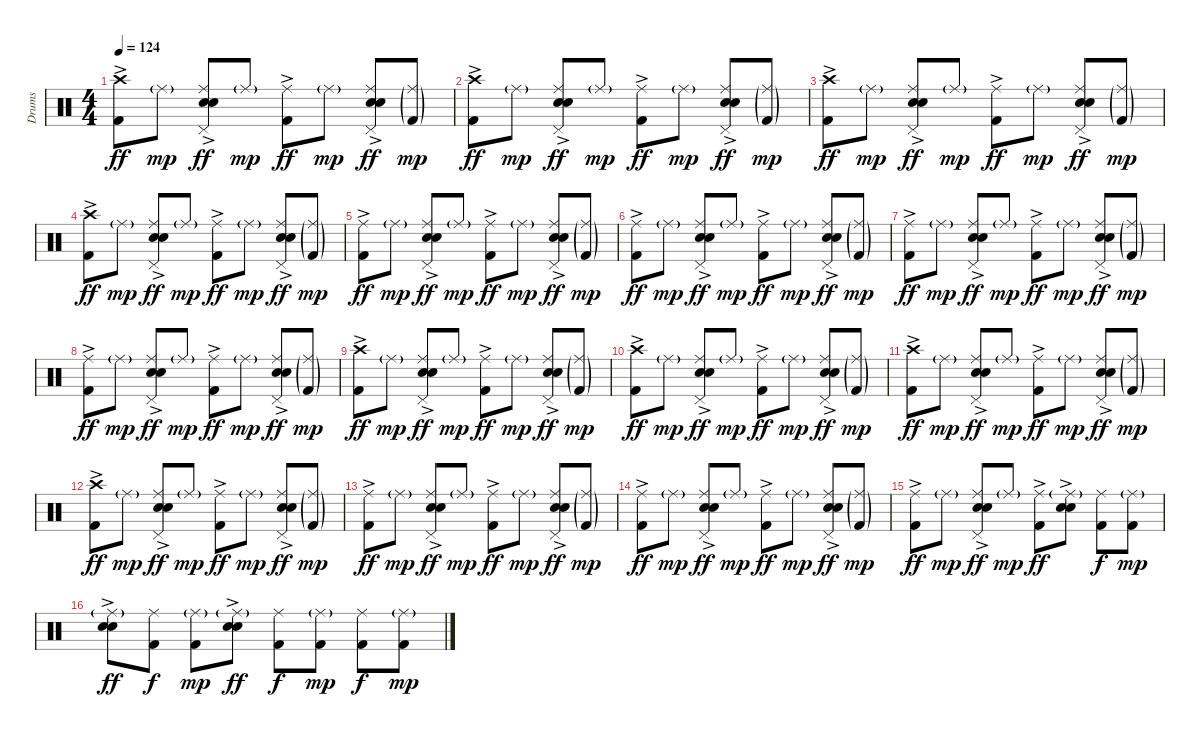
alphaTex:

\track ("Drums" "Drums") {instrument percussion}
\staff {score}
\articulation defaults
\ts (4 4)
\tempo 124
\clef neutral
\ks c
("Crash high (hit)" "Kick (hit) 2"{ac}).8{dy ff} "Ride (middle)"{g}.8{dy mp} ("Ride (middle)" "Electric Snare (hit)"{ac} "Snare (hit) 2" "Pedal Hi-Hat (hit)").8{dy ff} "Ride (middle)"{g}.8{dy mp} ("Ride (middle)" "Kick (hit) 2"{ac}).8{dy ff} "Ride (middle)"{g}.8{dy mp} ("Ride (middle)" "Electric Snare (hit)"{ac} "Snare (hit) 2" "Pedal Hi-Hat (hit)").8{dy ff} ("Ride (middle)"{g} "Kick (hit) 2"{g}).8{dy mp} |
("Crash high (hit)" "Kick (hit) 2"{ac}).8{dy ff} "Ride (middle)"{g}.8{dy mp} ("Ride (middle)" "Electric Snare (hit)"{ac} "Snare (hit) 2" "Pedal Hi-Hat (hit)").8{dy ff} "Ride (middle)"{g}.8{dy mp} ("Ride (middle)" "Kick (hit) 2"{ac}).8{dy ff} "Ride (middle)"{g}.8{dy mp} ("Ride (middle)" "Electric Snare (hit)"{ac} "Snare (hit) 2" "Pedal Hi-Hat (hit)").8{dy ff} ("Ride (middle)"{g} "Kick (hit) 2"{g}).8{dy mp} |
("Crash high (hit)" "Kick (hit) 2"{ac}).8{dy ff} "Ride (middle)"{g}.8{dy mp} ("Ride (middle)" "Electric Snare (hit)"{ac} "Snare (hit) 2" "Pedal Hi-Hat (hit)").8{dy ff} "Ride (middle)"{g}.8{dy mp} ("Ride (middle)" "Kick (hit) 2"{ac}).8{dy ff} "Ride (middle)"{g}.8{dy mp} ("Ride (middle)" "Electric Snare (hit)"{ac} "Snare (hit) 2" "Pedal Hi-Hat (hit)").8{dy ff} ("Ride (middle)"{g} "Kick (hit) 2"{g}).8{dy mp} |
("Crash high (hit)" "Kick (hit) 2"{ac}).8{dy ff} "Ride (middle)"{g}.8{dy mp} ("Ride (middle)" "Electric Snare (hit)"{ac} "Snare (hit) 2" "Pedal Hi-Hat (hit)").8{dy ff} "Ride (middle)"{g}.8{dy mp} ("Ride (middle)" "Kick (hit) 2"{ac}).8{dy ff} "Ride (middle)"{g}.8{dy mp} ("Ride (middle)" "Electric Snare (hit)"{ac} "Snare (hit) 2" "Pedal Hi-Hat (hit)").8{dy ff} ("Ride (middle)"{g} "Kick (hit) 2"{g}).8{dy mp} |
("Ride (middle)" "Kick (hit) 2"{ac}).8{dy ff} "Ride (middle)"{g}.8{dy mp} ("Ride (middle)" "Electric Snare (hit)"{ac} "Snare (hit) 2" "Pedal Hi-Hat (hit)").8{dy ff} "Ride (middle)"{g}.8{dy mp} ("Ride (middle)" "Kick (hit) 2"{ac}).8{dy ff} "Ride (middle)"{g}.8{dy mp} ("Ride (middle)" "Electric Snare (hit)"{ac} "Snare (hit) 2" "Pedal Hi-Hat (hit)").8{dy ff} ("Ride (middle)"{g} "Kick (hit) 2"{g}).8{dy mp} |
("Ride (middle)" "Kick (hit) 2"{ac}).8{dy ff} "Ride (middle)"{g}.8{dy mp} ("Ride (middle)" "Electric Snare (hit)"{ac} "Snare (hit) 2" "Pedal Hi-Hat (hit)").8{dy ff} "Ride (middle)"{g}.8{dy mp} ("Ride (middle)" "Kick (hit) 2"{ac}).8{dy ff} "Ride (middle)"{g}.8{dy mp} ("Ride (middle)" "Electric Snare (hit)"{ac} "Snare (hit) 2" "Pedal Hi-Hat (hit)").8{dy ff} ("Ride (middle)"{g} "Kick (hit) 2"{g}).8{dy mp} |
("Ride (middle)" "Kick (hit) 2"{ac}).8{dy ff} "Ride (middle)"{g}.8{dy mp} ("Ride (middle)" "Electric Snare (hit)"{ac} "Snare (hit) 2" "Pedal Hi-Hat (hit)").8{dy ff} "Ride (middle)"{g}.8{dy mp} ("Ride (middle)" "Kick (hit) 2"{ac}).8{dy ff} "Ride (middle)"{g}.8{dy mp} ("Ride (middle)" "Electric Snare (hit)"{ac} "Snare (hit) 2" "Pedal Hi-Hat (hit)").8{dy ff} ("Ride (middle)"{g} "Kick (hit) 2"{g}).8{dy mp} |
("Ride (middle)" "Kick (hit) 2"{ac}).8{dy ff} "Ride (middle)"{g}.8{dy mp} ("Ride (middle)" "Electric Snare (hit)"{ac} "Snare (hit) 2" "Pedal Hi-Hat (hit)").8{dy ff} "Ride (middle)"{g}.8{dy mp} ("Ride (middle)" "Kick (hit) 2"{ac}).8{dy ff} "Ride (middle)"{g}.8{dy mp} ("Ride (middle)" "Electric Snare (hit)"{ac} "Snare (hit) 2" "Pedal Hi-Hat (hit)").8{dy ff} ("Ride (middle)"{g} "Kick (hit) 2"{g}).8{dy mp} |
("Crash high (hit)" "Kick (hit) 2"{ac}).8{dy ff} "Ride (middle)"{g}.8{dy mp} ("Ride (middle)" "Electric Snare (hit)"{ac} "Snare (hit) 2" "Pedal Hi-Hat (hit)").8{dy ff} "Ride (middle)"{g}.8{dy mp} ("Ride (middle)" "Kick (hit) 2"{ac}).8{dy ff} "Ride (middle)"{g}.8{dy mp} ("Ride (middle)" "Electric Snare (hit)"{ac} "Snare (hit) 2" "Pedal Hi-Hat (hit)").8{dy ff} ("Ride (middle)"{g} "Kick (hit) 2"{g}).8{dy mp} |
("Crash high (hit)" "Kick (hit) 2"{ac}).8{dy ff} "Ride (middle)"{g}.8{dy mp} ("Ride (middle)" "Electric Snare (hit)"{ac} "Snare (hit) 2" "Pedal Hi-Hat (hit)").8{dy ff} "Ride (middle)"{g}.8{dy mp} ("Ride (middle)" "Kick (hit) 2"{ac}).8{dy ff} "Ride (middle)"{g}.8{dy mp} ("Ride (middle)" "Electric Snare (hit)"{ac} "Snare (hit) 2" "Pedal Hi-Hat (hit)").8{dy ff} ("Ride (middle)"{g} "Kick (hit) 2"{g}).8{dy mp} |
("Crash high (hit)" "Kick (hit) 2"{ac}).8{dy ff} "Ride (middle)"{g}.8{dy mp} ("Ride (middle)" "Electric Snare (hit)"{ac} "Snare (hit) 2" "Pedal Hi-Hat (hit)").8{dy ff} "Ride (middle)"{g}.8{dy mp} ("Ride (middle)" "Kick (hit) 2"{ac}).8{dy ff} "Ride (middle)"{g}.8{dy mp} ("Ride (middle)" "Electric Snare (hit)"{ac} "Snare (hit) 2" "Pedal Hi-Hat (hit)").8{dy ff} ("Ride (middle)"{g} "Kick (hit) 2"{g}).8{dy mp} |
("Crash high (hit)" "Kick (hit) 2"{ac}).8{dy ff} "Ride (middle)"{g}.8{dy mp} ("Ride (middle)" "Electric Snare (hit)"{ac} "Snare (hit) 2" "Pedal Hi-Hat (hit)").8{dy ff} "Ride (middle)"{g}.8{dy mp} ("Ride (middle)" "Kick (hit) 2"{ac}).8{dy ff} "Ride (middle)"{g}.8{dy mp} ("Ride (middle)" "Electric Snare (hit)"{ac} "Snare (hit) 2" "Pedal Hi-Hat (hit)").8{dy ff} ("Ride (middle)"{g} "Kick (hit) 2"{g}).8{dy mp} |
("Ride (middle)" "Kick (hit) 2"{ac}).8{dy ff} "Ride (middle)"{g}.8{dy mp} ("Ride (middle)" "Electric Snare (hit)"{ac} "Snare (hit) 2" "Pedal Hi-Hat (hit)").8{dy ff} "Ride (middle)"{g}.8{dy mp} ("Ride (middle)" "Kick (hit) 2"{ac}).8{dy ff} "Ride (middle)"{g}.8{dy mp} ("Ride (middle)" "Electric Snare (hit)"{ac} "Snare (hit) 2" "Pedal Hi-Hat (hit)").8{dy ff} ("Ride (middle)"{g} "Kick (hit) 2"{g}).8{dy mp} |
("Ride (middle)" "Kick (hit) 2"{ac}).8{dy ff} "Ride (middle)"{g}.8{dy mp} ("Ride (middle)" "Electric Snare (hit)"{ac} "Snare (hit) 2" "Pedal Hi-Hat (hit)").8{dy ff} "Ride (middle)"{g}.8{dy mp} ("Ride (middle)" "Kick (hit) 2"{ac}).8{dy ff} "Ride (middle)"{g}.8{dy mp} ("Ride (middle)" "Electric Snare (hit)"{ac} "Snare (hit) 2" "Pedal Hi-Hat (hit)").8{dy ff} ("Ride (middle)"{g} "Kick (hit) 2"{g}).8{dy mp} |
("Ride (middle)" "Kick (hit) 2"{ac}).8{dy ff} "Ride (middle)"{g}.8{dy mp} ("Ride (middle)" "Electric Snare (hit)"{ac} "Snare (hit) 2" "Pedal Hi-Hat (hit)").8{dy ff} "Ride (middle)"{g}.8{dy mp} ("Ride (middle)" "Kick (hit) 2"{ac}).8{dy ff} ("Ride (middle)"{g} "Electric Snare (hit)"{ac} "Snare (hit) 2").8 ("Ride (middle)" "Kick (hit) 2").8{dy f} ("Ride (middle)"{g} "Kick (hit) 2").8{dy mp} |
("Ride (middle)"{g} "Electric Snare (hit)"{ac} "Snare (hit) 2").8{dy ff} ("Ride (middle)" "Kick (hit) 2").8{dy f} ("Ride (middle)"{g} "Kick (hit) 2").8{dy mp} ("Ride (middle)"{g} "Electric Snare (hit)"{ac} "Snare (hit) 2").8{dy ff} ("Ride (middle)" "Kick (hit) 2").8{dy f} ("Ride (middle)"{g} "Kick (hit) 2").8{dy mp} ("Ride (middle)" "Kick (hit) 2").8{dy f} ("Ride (middle)"{g} "Kick (hit) 2").8{dy mp}
